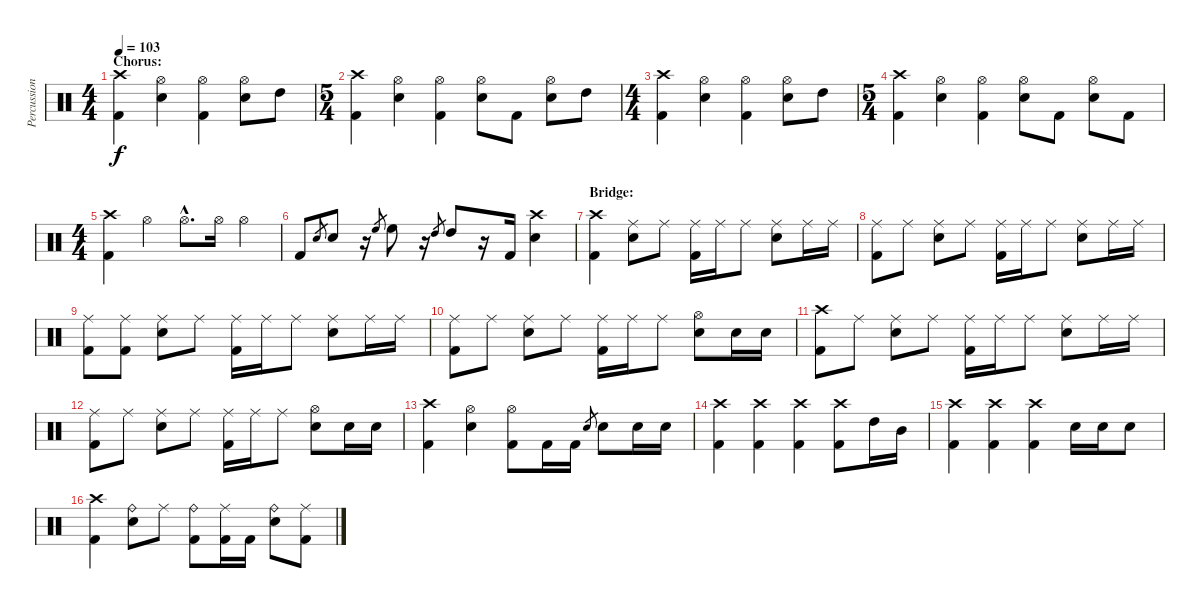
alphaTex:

\track ("Percussion" "Percussion") {instrument percussion}
\staff {score}
\articulation defaults
\ts (4 4)
\section ("" "Chorus:")
\tempo 103
\clef neutral
\ks c
("Crash high (hit)" "Kick (hit) 2").4{dy f} ("Hi-Hat (open)" "Snare (hit) 2").4 ("Hi-Hat (open)" "Kick (hit) 2").4 ("Hi-Hat (open)" "Snare (hit) 2").8 "High Tom (hit)".8 |
\ts (5 4)
("Crash high (hit)" "Kick (hit) 2").4 ("Hi-Hat (open)" "Snare (hit) 2").4 ("Hi-Hat (open)" "Kick (hit) 2").4 ("Hi-Hat (open)" "Snare (hit) 2").8 "Kick (hit) 2".8 ("Hi-Hat (open)" "Snare (hit) 2").8 "High Tom (hit)".8 |
\ts (4 4)
("Crash high (hit)" "Kick (hit) 2").4 ("Hi-Hat (open)" "Snare (hit) 2").4 ("Hi-Hat (open)" "Kick (hit) 2").4 ("Hi-Hat (open)" "Snare (hit) 2").8 "High Tom (hit)".8 |
\ts (5 4)
("Crash high (hit)" "Kick (hit) 2").4 ("Hi-Hat (open)" "Snare (hit) 2").4 ("Hi-Hat (open)" "Kick (hit) 2").4 ("Hi-Hat (open)" "Snare (hit) 2").8 "Kick (hit) 2".8 ("Hi-Hat (open)" "Snare (hit) 2").8 "Kick (hit) 2".8 |
\ts (4 4)
("Crash high (hit)" "Kick (hit) 2").4 "Hi-Hat (open)".4 "Hi-Hat (open)"{hac}.8{d} "Hi-Hat (open)".16 "Hi-Hat (open)".4 |
"Kick (hit) 2".8 "Snare (hit) 2".8{gr} "Snare (hit) 2".8 r.16 "High Floor Tom (hit)".8{gr} "High Floor Tom (hit)".8 r.16 "High Tom (hit)".8{gr} "High Tom (hit)".8 r.16 "Kick (hit) 2".16 ("Crash high (hit)" "Snare (hit) 2").4 |
\section ("" "Bridge:")
("Crash high (hit)" "Kick (hit) 2").4 ("Ride (middle)" "Snare (hit) 2").8 "Ride (middle)".8 ("Ride (middle)" "Kick (hit) 2").16 "Ride (middle)".16 "Ride (middle)".8 ("Ride (middle)" "Snare (hit) 2").8 "Ride (middle)".16 "Ride (middle)".16 |
("Ride (middle)" "Kick (hit) 2").8 "Ride (middle)".8 ("Ride (middle)" "Snare (hit) 2").8 "Ride (middle)".8 ("Ride (middle)" "Kick (hit) 2").16 "Ride (middle)".16 "Ride (middle)".8 ("Ride (middle)" "Snare (hit) 2").8 "Ride (middle)".16 "Ride (middle)".16 |
("Ride (middle)" "Kick (hit) 2").8 ("Ride (middle)" "Kick (hit) 2").8 ("Ride (middle)" "Snare (hit) 2").8 "Ride (middle)".8 ("Ride (middle)" "Kick (hit) 2").16 "Ride (middle)".16 "Ride (middle)".8 ("Ride (middle)" "Snare (hit) 2").8 "Ride (middle)".16 "Ride (middle)".16 |
("Ride (middle)" "Kick (hit) 2").8 "Ride (middle)".8 ("Ride (middle)" "Snare (hit) 2").8 "Ride (middle)".8 ("Ride (middle)" "Kick (hit) 2").16 "Ride (middle)".16 "Ride (middle)".8 ("Hi-Hat (open)" "Snare (hit) 2").8 "Snare (hit) 2".16 "Snare (hit) 2".16 |
("Crash high (hit)" "Kick (hit) 2").8 "Ride (middle)".8 ("Ride (middle)" "Snare (hit) 2").8 "Ride (middle)".8 ("Ride (middle)" "Kick (hit) 2").16 "Ride (middle)".16 "Ride (middle)".8 ("Ride (middle)" "Snare (hit) 2").8 "Ride (middle)".16 "Ride (middle)".16 |
("Ride (middle)" "Kick (hit) 2").8 "Ride (middle)".8 ("Ride (middle)" "Snare (hit) 2").8 "Ride (middle)".8 ("Ride (middle)" "Kick (hit) 2").16 "Ride (middle)".16 "Ride (middle)".8 ("Hi-Hat (open)" "Snare (hit) 2").8 "Snare (hit) 2".16 "Snare (hit) 2".16 |
("Crash high (hit)" "Kick (hit) 2").4 ("Hi-Hat (open)" "Snare (hit) 2").4 ("Hi-Hat (open)" "Kick (hit) 2").8 "Kick (hit) 2".16 "Kick (hit) 2".16 "Snare (hit) 2".8{gr} "Snare (hit) 2".8 "Snare (hit) 2".16 "Snare (hit) 2".16 |
("Crash high (hit)" "Kick (hit) 2").4 ("Crash high (hit)" "Kick (hit) 2").4 ("Crash high (hit)" "Kick (hit) 2").4 ("Crash high (hit)" "Kick (hit) 2").8 "High Tom (hit)".16 "Mid Tom (hit)".16 |
("Crash high (hit)" "Kick (hit) 2").4 ("Crash high (hit)" "Kick (hit) 2").4 ("Crash high (hit)" "Kick (hit) 2").4 "Snare (hit) 2".16 "Snare (hit) 2".16 "Snare (hit) 2".8 |
("Crash high (hit)" "Kick (hit) 2").4 ("Ride (bell)" "Snare (hit) 2").8 "Ride (middle)".8 ("Ride (bell)" "Kick (hit) 2").8 ("Ride (middle)" "Kick (hit) 2").16 "Kick (hit) 2".16 ("Ride (bell)" "Snare (hit) 2").8 ("Ride (middle)" "Kick (hit) 2").8
